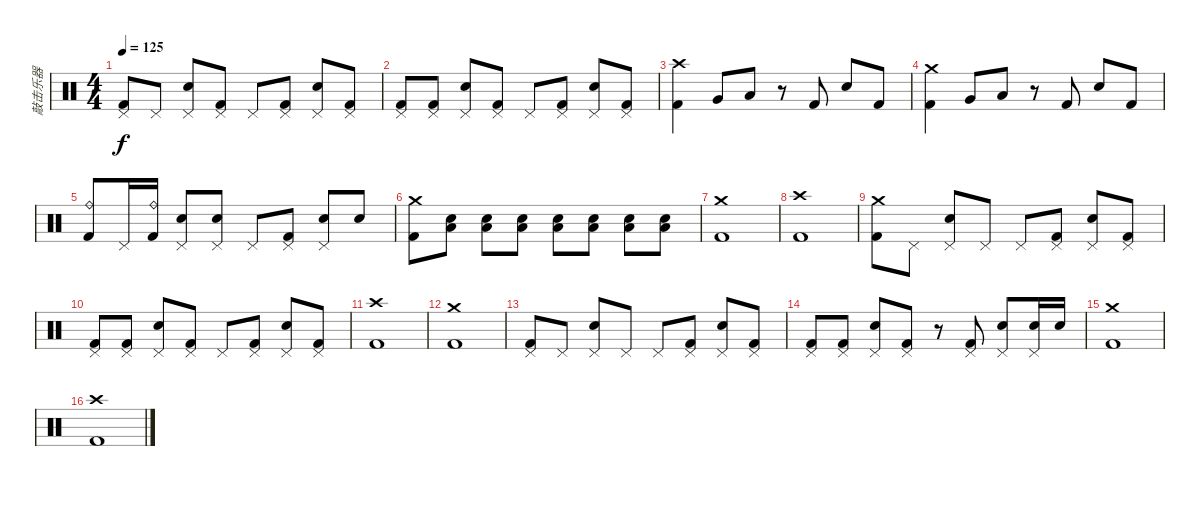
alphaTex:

\track ("敲击乐器" "敲击乐器") {instrument percussion}
\staff {score}
\articulation defaults
\ts (4 4)
\tempo 125
\clef neutral
\ks c
("Kick (hit) 2" "Pedal Hi-Hat (hit)").8{dy f} "Pedal Hi-Hat (hit)".8 ("Electric Snare (hit)" "Pedal Hi-Hat (hit)").8 ("Kick (hit) 2" "Pedal Hi-Hat (hit)").8 "Pedal Hi-Hat (hit)".8 ("Kick (hit) 2" "Pedal Hi-Hat (hit)").8 ("Electric Snare (hit)" "Pedal Hi-Hat (hit)").8 ("Kick (hit) 2" "Pedal Hi-Hat (hit)").8 |
("Kick (hit) 2" "Pedal Hi-Hat (hit)").8 ("Kick (hit) 2" "Pedal Hi-Hat (hit)").8 ("Electric Snare (hit)" "Pedal Hi-Hat (hit)").8 ("Kick (hit) 2" "Pedal Hi-Hat (hit)").8 "Pedal Hi-Hat (hit)".8 ("Kick (hit) 2" "Pedal Hi-Hat (hit)").8 ("Electric Snare (hit)" "Pedal Hi-Hat (hit)").8 ("Kick (hit) 2" "Pedal Hi-Hat (hit)").8 |
("Kick (hit) 2" "Crash high (hit)").4 "Very Low Tom (hit)".8 "Low Floor Tom (hit)".8 r.8 "Kick (hit) 2".8 "Electric Snare (hit)".8 "Kick (hit) 2".8 |
("Kick (hit) 2" "Crash medium (hit)").4 "Very Low Tom (hit)".8 "Low Floor Tom (hit)".8 r.8 "Kick (hit) 2".8 "Electric Snare (hit)".8 "Kick (hit) 2".8 |
("Kick (hit) 2" "Ride (bell)").8 "Pedal Hi-Hat (hit)".16 ("Kick (hit) 2" "Ride (bell)").16 ("Electric Snare (hit)" "Pedal Hi-Hat (hit)").8 ("Electric Snare (hit)" "Pedal Hi-Hat (hit)").8 "Pedal Hi-Hat (hit)".8 ("Kick (hit) 2" "Pedal Hi-Hat (hit)").8 ("Electric Snare (hit)" "Pedal Hi-Hat (hit)").8 "Electric Snare (hit)".8 |
("Kick (hit) 2" "Crash medium (hit)").8 ("Electric Snare (hit)" "Low Tom (hit)").8 ("Electric Snare (hit)" "Low Tom (hit)").8 ("Electric Snare (hit)" "Low Tom (hit)").8 ("Electric Snare (hit)" "Low Tom (hit)").8 ("Electric Snare (hit)" "Low Tom (hit)").8 ("Electric Snare (hit)" "Low Tom (hit)").8 ("Electric Snare (hit)" "Low Tom (hit)").8 |
("Kick (hit) 2" "Crash medium (hit)").1 |
("Kick (hit) 2" "Crash high (hit)").1 |
("Kick (hit) 2" "Crash medium (hit)").8 "Pedal Hi-Hat (hit)".8 ("Electric Snare (hit)" "Pedal Hi-Hat (hit)").8 "Pedal Hi-Hat (hit)".8 "Pedal Hi-Hat (hit)".8 ("Kick (hit) 2" "Pedal Hi-Hat (hit)").8 ("Electric Snare (hit)" "Pedal Hi-Hat (hit)").8 ("Kick (hit) 2" "Pedal Hi-Hat (hit)").8 |
("Kick (hit) 2" "Pedal Hi-Hat (hit)").8 ("Kick (hit) 2" "Pedal Hi-Hat (hit)").8 ("Electric Snare (hit)" "Pedal Hi-Hat (hit)").8 ("Kick (hit) 2" "Pedal Hi-Hat (hit)").8 "Pedal Hi-Hat (hit)".8 ("Kick (hit) 2" "Pedal Hi-Hat (hit)").8 ("Electric Snare (hit)" "Pedal Hi-Hat (hit)").8 ("Kick (hit) 2" "Pedal Hi-Hat (hit)").8 |
("Kick (hit) 2" "Crash high (hit)").1 |
("Kick (hit) 2" "Crash medium (hit)").1 |
("Kick (hit) 2" "Pedal Hi-Hat (hit)").8 "Pedal Hi-Hat (hit)".8 ("Electric Snare (hit)" "Pedal Hi-Hat (hit)").8 "Pedal Hi-Hat (hit)".8 "Pedal Hi-Hat (hit)".8 ("Kick (hit) 2" "Pedal Hi-Hat (hit)").8 ("Electric Snare (hit)" "Pedal Hi-Hat (hit)").8 ("Kick (hit) 2" "Pedal Hi-Hat (hit)").8 |
("Kick (hit) 2" "Pedal Hi-Hat (hit)").8 ("Kick (hit) 2" "Pedal Hi-Hat (hit)").8 ("Electric Snare (hit)" "Pedal Hi-Hat (hit)").8 ("Kick (hit) 2" "Pedal Hi-Hat (hit)").8 r.8 ("Kick (hit) 2" "Pedal Hi-Hat (hit)").8 ("Electric Snare (hit)" "Pedal Hi-Hat (hit)").8 ("Electric Snare (hit)" "Pedal Hi-Hat (hit)").16 "Electric Snare (hit)".16 |
("Kick (hit) 2" "Crash medium (hit)").1 |
("Kick (hit) 2" "Crash high (hit)").1
